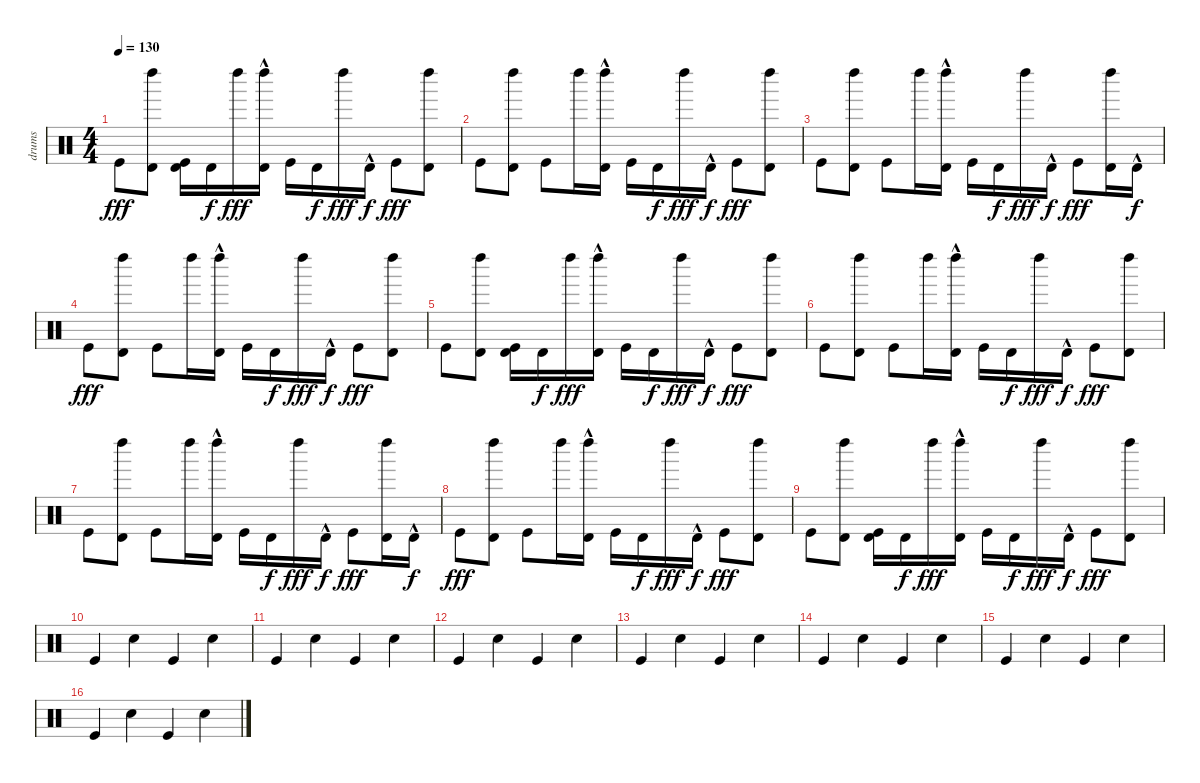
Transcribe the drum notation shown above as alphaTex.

\track ("drums" "drums") {instrument percussion}
\staff {score}
\articulation defaults
\ts (4 4)
\tempo 130
\clef neutral
\ks c "Kick (hit)".8{dy fff}
("Left Maraca (hit)" "Timbale high (hit)").8 ("Kick (hit)" "Timbale high (hit)").16 "Timbale high (hit)".16{dy f} "Left Maraca (hit)".16{dy fff} ("Left Maraca (hit)"{hac} "Timbale high (hit)").16 "Kick (hit)".16 "Timbale high (hit)".16{dy f} "Left Maraca (hit)".16{dy fff} "Timbale high (hit)"{hac}.16{dy f} "Kick (hit)".8{dy fff} ("Left Maraca (hit)" "Timbale high (hit)").8 |
"Kick (hit)".8 ("Left Maraca (hit)" "Timbale high (hit)").8 "Kick (hit)".8 "Left Maraca (hit)".16 ("Left Maraca (hit)"{hac} "Timbale high (hit)").16 "Kick (hit)".16 "Timbale high (hit)".16{dy f} "Left Maraca (hit)".16{dy fff} "Timbale high (hit)"{hac}.16{dy f} "Kick (hit)".8{dy fff} ("Left Maraca (hit)" "Timbale high (hit)").8 |
"Kick (hit)".8 ("Left Maraca (hit)" "Timbale high (hit)").8 "Kick (hit)".8 "Left Maraca (hit)".16 ("Left Maraca (hit)"{hac} "Timbale high (hit)").16 "Kick (hit)".16 "Timbale high (hit)".16{dy f} "Left Maraca (hit)".16{dy fff} "Timbale high (hit)"{hac}.16{dy f} "Kick (hit)".8{dy fff} ("Left Maraca (hit)" "Timbale high (hit)").16 "Timbale high (hit)"{hac}.16{dy f} |
"Kick (hit)".8{dy fff} ("Left Maraca (hit)" "Timbale high (hit)").8 "Kick (hit)".8 "Left Maraca (hit)".16 ("Left Maraca (hit)"{hac} "Timbale high (hit)").16 "Kick (hit)".16 "Timbale high (hit)".16{dy f} "Left Maraca (hit)".16{dy fff} "Timbale high (hit)"{hac}.16{dy f} "Kick (hit)".8{dy fff} ("Left Maraca (hit)" "Timbale high (hit)").8 |
"Kick (hit)".8 ("Left Maraca (hit)" "Timbale high (hit)").8 ("Kick (hit)" "Timbale high (hit)").16 "Timbale high (hit)".16{dy f} "Left Maraca (hit)".16{dy fff} ("Left Maraca (hit)"{hac} "Timbale high (hit)").16 "Kick (hit)".16 "Timbale high (hit)".16{dy f} "Left Maraca (hit)".16{dy fff} "Timbale high (hit)"{hac}.16{dy f} "Kick (hit)".8{dy fff} ("Left Maraca (hit)" "Timbale high (hit)").8 |
"Kick (hit)".8 ("Left Maraca (hit)" "Timbale high (hit)").8 "Kick (hit)".8 "Left Maraca (hit)".16 ("Left Maraca (hit)"{hac} "Timbale high (hit)").16 "Kick (hit)".16 "Timbale high (hit)".16{dy f} "Left Maraca (hit)".16{dy fff} "Timbale high (hit)"{hac}.16{dy f} "Kick (hit)".8{dy fff} ("Left Maraca (hit)" "Timbale high (hit)").8 |
"Kick (hit)".8 ("Left Maraca (hit)" "Timbale high (hit)").8 "Kick (hit)".8 "Left Maraca (hit)".16 ("Left Maraca (hit)"{hac} "Timbale high (hit)").16 "Kick (hit)".16 "Timbale high (hit)".16{dy f} "Left Maraca (hit)".16{dy fff} "Timbale high (hit)"{hac}.16{dy f} "Kick (hit)".8{dy fff} ("Left Maraca (hit)" "Timbale high (hit)").16 "Timbale high (hit)"{hac}.16{dy f} |
"Kick (hit)".8{dy fff} ("Left Maraca (hit)" "Timbale high (hit)").8 "Kick (hit)".8 "Left Maraca (hit)".16 ("Left Maraca (hit)"{hac} "Timbale high (hit)").16 "Kick (hit)".16 "Timbale high (hit)".16{dy f} "Left Maraca (hit)".16{dy fff} "Timbale high (hit)"{hac}.16{dy f} "Kick (hit)".8{dy fff} ("Left Maraca (hit)" "Timbale high (hit)").8 |
"Kick (hit)".8 ("Left Maraca (hit)" "Timbale high (hit)").8 ("Kick (hit)" "Timbale high (hit)").16 "Timbale high (hit)".16{dy f} "Left Maraca (hit)".16{dy fff} ("Left Maraca (hit)"{hac} "Timbale high (hit)").16 "Kick (hit)".16 "Timbale high (hit)".16{dy f} "Left Maraca (hit)".16{dy fff} "Timbale high (hit)"{hac}.16{dy f} "Kick (hit)".8{dy fff} ("Left Maraca (hit)" "Timbale high (hit)").8 |
"Kick (hit)".4 "Snare (hit) 2".4 "Kick (hit)".4 "Snare (hit) 2".4 |
"Kick (hit)".4 "Snare (hit) 2".4 "Kick (hit)".4 "Snare (hit) 2".4 |
"Kick (hit)".4 "Snare (hit) 2".4 "Kick (hit)".4 "Snare (hit) 2".4 |
"Kick (hit)".4 "Snare (hit) 2".4 "Kick (hit)".4 "Snare (hit) 2".4 |
"Kick (hit)".4 "Snare (hit) 2".4 "Kick (hit)".4 "Snare (hit) 2".4 |
"Kick (hit)".4 "Snare (hit) 2".4 "Kick (hit)".4 "Snare (hit) 2".4 |
"Kick (hit)".4 "Snare (hit) 2".4 "Kick (hit)".4 "Snare (hit) 2".4
